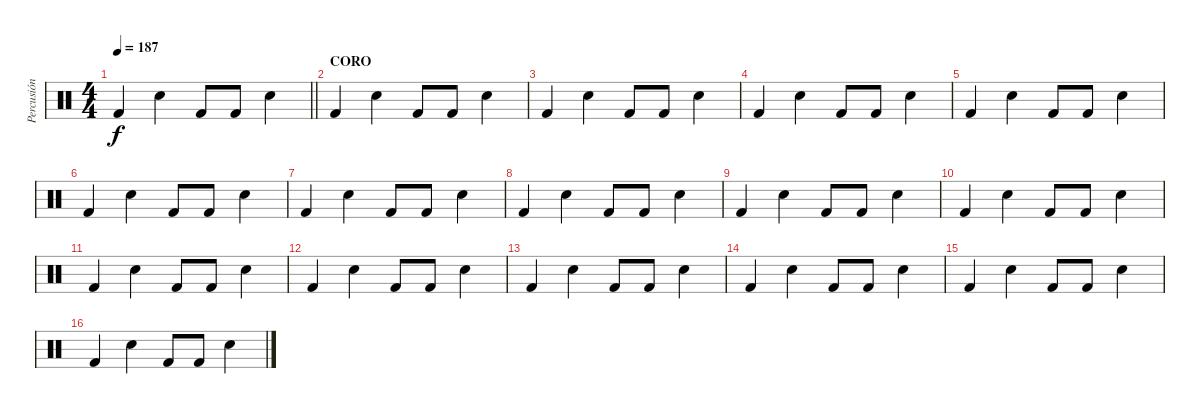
\track ("Percusión" "Percusión") {instrument percussion}
\staff {score}
\articulation defaults
\ts (4 4)
\tempo 187
\clef neutral
\barLineRight lightlight
\ks c "Kick (hit) 2".4{dy f} "Snare (hit) 2".4 "Kick (hit) 2".8 "Kick (hit) 2".8 "Snare (hit) 2".4
|
\section ("" "CORO")
"Kick (hit) 2".4 "Snare (hit) 2".4 "Kick (hit) 2".8 "Kick (hit) 2".8 "Snare (hit) 2".4 |
"Kick (hit) 2".4 "Snare (hit) 2".4 "Kick (hit) 2".8 "Kick (hit) 2".8 "Snare (hit) 2".4 |
"Kick (hit) 2".4 "Snare (hit) 2".4 "Kick (hit) 2".8 "Kick (hit) 2".8 "Snare (hit) 2".4 |
"Kick (hit) 2".4 "Snare (hit) 2".4 "Kick (hit) 2".8 "Kick (hit) 2".8 "Snare (hit) 2".4 |
"Kick (hit) 2".4 "Snare (hit) 2".4 "Kick (hit) 2".8 "Kick (hit) 2".8 "Snare (hit) 2".4 |
"Kick (hit) 2".4 "Snare (hit) 2".4 "Kick (hit) 2".8 "Kick (hit) 2".8 "Snare (hit) 2".4 |
"Kick (hit) 2".4 "Snare (hit) 2".4 "Kick (hit) 2".8 "Kick (hit) 2".8 "Snare (hit) 2".4 |
"Kick (hit) 2".4 "Snare (hit) 2".4 "Kick (hit) 2".8 "Kick (hit) 2".8 "Snare (hit) 2".4 |
"Kick (hit) 2".4 "Snare (hit) 2".4 "Kick (hit) 2".8 "Kick (hit) 2".8 "Snare (hit) 2".4 |
"Kick (hit) 2".4 "Snare (hit) 2".4 "Kick (hit) 2".8 "Kick (hit) 2".8 "Snare (hit) 2".4 |
"Kick (hit) 2".4 "Snare (hit) 2".4 "Kick (hit) 2".8 "Kick (hit) 2".8 "Snare (hit) 2".4 |
"Kick (hit) 2".4 "Snare (hit) 2".4 "Kick (hit) 2".8 "Kick (hit) 2".8 "Snare (hit) 2".4 |
"Kick (hit) 2".4 "Snare (hit) 2".4 "Kick (hit) 2".8 "Kick (hit) 2".8 "Snare (hit) 2".4 |
"Kick (hit) 2".4 "Snare (hit) 2".4 "Kick (hit) 2".8 "Kick (hit) 2".8 "Snare (hit) 2".4 |
"Kick (hit) 2".4 "Snare (hit) 2".4 "Kick (hit) 2".8 "Kick (hit) 2".8 "Snare (hit) 2".4
